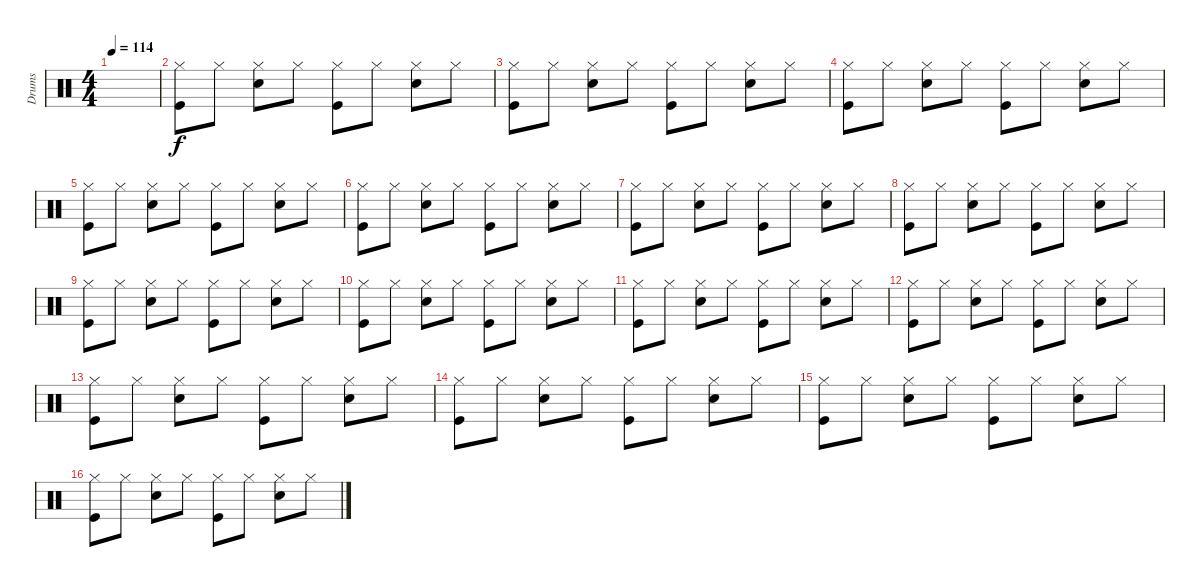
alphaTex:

\track ("Drums" "Drums") {instrument percussion}
\staff {score}
\articulation defaults
\ts (4 4)
\tempo 114
\clef neutral
\ks c
|
("Hi-Hat (closed)" "Kick (hit)").8 "Hi-Hat (closed)".8 ("Hi-Hat (closed)" "Snare (hit) 2").8 "Hi-Hat (closed)".8 ("Hi-Hat (closed)" "Kick (hit)").8 "Hi-Hat (closed)".8 ("Hi-Hat (closed)" "Snare (hit) 2").8 "Hi-Hat (closed)".8 |
("Hi-Hat (closed)" "Kick (hit)").8 "Hi-Hat (closed)".8 ("Hi-Hat (closed)" "Snare (hit) 2").8 "Hi-Hat (closed)".8 ("Hi-Hat (closed)" "Kick (hit)").8 "Hi-Hat (closed)".8 ("Hi-Hat (closed)" "Snare (hit) 2").8 "Hi-Hat (closed)".8 |
("Hi-Hat (closed)" "Kick (hit)").8 "Hi-Hat (closed)".8 ("Hi-Hat (closed)" "Snare (hit) 2").8 "Hi-Hat (closed)".8 ("Hi-Hat (closed)" "Kick (hit)").8 "Hi-Hat (closed)".8 ("Hi-Hat (closed)" "Snare (hit) 2").8 "Hi-Hat (closed)".8 |
("Hi-Hat (closed)" "Kick (hit)").8 "Hi-Hat (closed)".8 ("Hi-Hat (closed)" "Snare (hit) 2").8 "Hi-Hat (closed)".8 ("Hi-Hat (closed)" "Kick (hit)").8 "Hi-Hat (closed)".8 ("Hi-Hat (closed)" "Snare (hit) 2").8 "Hi-Hat (closed)".8 |
("Hi-Hat (closed)" "Kick (hit)").8 "Hi-Hat (closed)".8 ("Hi-Hat (closed)" "Snare (hit) 2").8 "Hi-Hat (closed)".8 ("Hi-Hat (closed)" "Kick (hit)").8 "Hi-Hat (closed)".8 ("Hi-Hat (closed)" "Snare (hit) 2").8 "Hi-Hat (closed)".8 |
("Hi-Hat (closed)" "Kick (hit)").8 "Hi-Hat (closed)".8 ("Hi-Hat (closed)" "Snare (hit) 2").8 "Hi-Hat (closed)".8 ("Hi-Hat (closed)" "Kick (hit)").8 "Hi-Hat (closed)".8 ("Hi-Hat (closed)" "Snare (hit) 2").8 "Hi-Hat (closed)".8 |
("Hi-Hat (closed)" "Kick (hit)").8 "Hi-Hat (closed)".8 ("Hi-Hat (closed)" "Snare (hit) 2").8 "Hi-Hat (closed)".8 ("Hi-Hat (closed)" "Kick (hit)").8 "Hi-Hat (closed)".8 ("Hi-Hat (closed)" "Snare (hit) 2").8 "Hi-Hat (closed)".8 |
("Hi-Hat (closed)" "Kick (hit)").8 "Hi-Hat (closed)".8 ("Hi-Hat (closed)" "Snare (hit) 2").8 "Hi-Hat (closed)".8 ("Hi-Hat (closed)" "Kick (hit)").8 "Hi-Hat (closed)".8 ("Hi-Hat (closed)" "Snare (hit) 2").8 "Hi-Hat (closed)".8 |
("Hi-Hat (closed)" "Kick (hit)").8 "Hi-Hat (closed)".8 ("Hi-Hat (closed)" "Snare (hit) 2").8 "Hi-Hat (closed)".8 ("Hi-Hat (closed)" "Kick (hit)").8 "Hi-Hat (closed)".8 ("Hi-Hat (closed)" "Snare (hit) 2").8 "Hi-Hat (closed)".8 |
("Hi-Hat (closed)" "Kick (hit)").8 "Hi-Hat (closed)".8 ("Hi-Hat (closed)" "Snare (hit) 2").8 "Hi-Hat (closed)".8 ("Hi-Hat (closed)" "Kick (hit)").8 "Hi-Hat (closed)".8 ("Hi-Hat (closed)" "Snare (hit) 2").8 "Hi-Hat (closed)".8 |
("Hi-Hat (closed)" "Kick (hit)").8 "Hi-Hat (closed)".8 ("Hi-Hat (closed)" "Snare (hit) 2").8 "Hi-Hat (closed)".8 ("Hi-Hat (closed)" "Kick (hit)").8 "Hi-Hat (closed)".8 ("Hi-Hat (closed)" "Snare (hit) 2").8 "Hi-Hat (closed)".8 |
("Hi-Hat (closed)" "Kick (hit)").8 "Hi-Hat (closed)".8 ("Hi-Hat (closed)" "Snare (hit) 2").8 "Hi-Hat (closed)".8 ("Hi-Hat (closed)" "Kick (hit)").8 "Hi-Hat (closed)".8 ("Hi-Hat (closed)" "Snare (hit) 2").8 "Hi-Hat (closed)".8 |
("Hi-Hat (closed)" "Kick (hit)").8 "Hi-Hat (closed)".8 ("Hi-Hat (closed)" "Snare (hit) 2").8 "Hi-Hat (closed)".8 ("Hi-Hat (closed)" "Kick (hit)").8 "Hi-Hat (closed)".8 ("Hi-Hat (closed)" "Snare (hit) 2").8 "Hi-Hat (closed)".8 |
("Hi-Hat (closed)" "Kick (hit)").8 "Hi-Hat (closed)".8 ("Hi-Hat (closed)" "Snare (hit) 2").8 "Hi-Hat (closed)".8 ("Hi-Hat (closed)" "Kick (hit)").8 "Hi-Hat (closed)".8 ("Hi-Hat (closed)" "Snare (hit) 2").8 "Hi-Hat (closed)".8 |
("Hi-Hat (closed)" "Kick (hit)").8 "Hi-Hat (closed)".8 ("Hi-Hat (closed)" "Snare (hit) 2").8 "Hi-Hat (closed)".8 ("Hi-Hat (closed)" "Kick (hit)").8 "Hi-Hat (closed)".8 ("Hi-Hat (closed)" "Snare (hit) 2").8 "Hi-Hat (closed)".8
